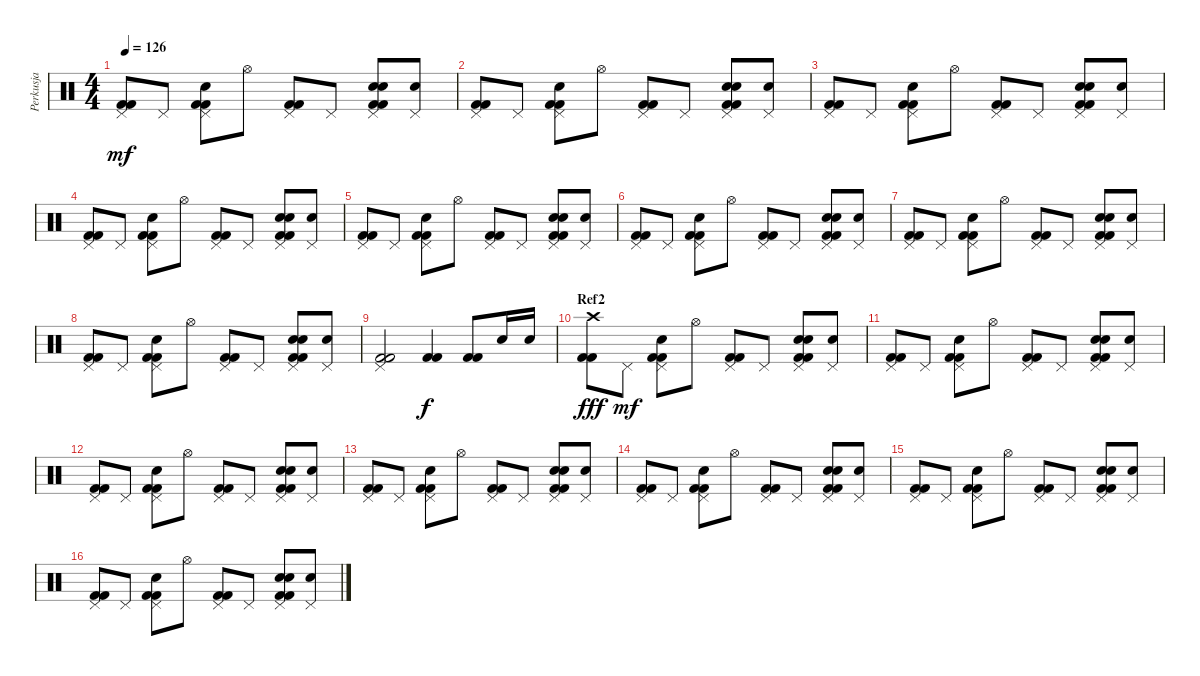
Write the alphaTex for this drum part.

\track ("Perkusja" "Perkusja") {instrument percussion}
\staff {score}
\articulation defaults
\ts (4 4)
\tempo 126
\clef neutral
\ks c
("Pedal Hi-Hat (hit)" "Kick (hit) 2" "Kick (hit) 2").8{dy mf} "Pedal Hi-Hat (hit)".8 ("Pedal Hi-Hat (hit)" "Snare (hit) 2" "Kick (hit) 2" "Kick (hit) 2").8 "Hi-Hat (open)".8 ("Pedal Hi-Hat (hit)" "Kick (hit) 2" "Kick (hit) 2").8 "Pedal Hi-Hat (hit)".8 ("Pedal Hi-Hat (hit)" "Hand Clap (hit)" "Snare (hit) 2" "Kick (hit) 2" "Kick (hit) 2").8 ("Pedal Hi-Hat (hit)" "Hand Clap (hit)").8 |
("Pedal Hi-Hat (hit)" "Kick (hit) 2" "Kick (hit) 2").8 "Pedal Hi-Hat (hit)".8 ("Pedal Hi-Hat (hit)" "Snare (hit) 2" "Kick (hit) 2" "Kick (hit) 2").8 "Hi-Hat (open)".8 ("Pedal Hi-Hat (hit)" "Kick (hit) 2" "Kick (hit) 2").8 "Pedal Hi-Hat (hit)".8 ("Pedal Hi-Hat (hit)" "Hand Clap (hit)" "Snare (hit) 2" "Kick (hit) 2" "Kick (hit) 2").8 ("Pedal Hi-Hat (hit)" "Hand Clap (hit)").8 |
("Pedal Hi-Hat (hit)" "Kick (hit) 2" "Kick (hit) 2").8 "Pedal Hi-Hat (hit)".8 ("Pedal Hi-Hat (hit)" "Snare (hit) 2" "Kick (hit) 2" "Kick (hit) 2").8 "Hi-Hat (open)".8 ("Pedal Hi-Hat (hit)" "Kick (hit) 2" "Kick (hit) 2").8 "Pedal Hi-Hat (hit)".8 ("Pedal Hi-Hat (hit)" "Hand Clap (hit)" "Snare (hit) 2" "Kick (hit) 2" "Kick (hit) 2").8 ("Pedal Hi-Hat (hit)" "Hand Clap (hit)").8 |
("Pedal Hi-Hat (hit)" "Kick (hit) 2" "Kick (hit) 2").8 "Pedal Hi-Hat (hit)".8 ("Pedal Hi-Hat (hit)" "Snare (hit) 2" "Kick (hit) 2" "Kick (hit) 2").8 "Hi-Hat (open)".8 ("Pedal Hi-Hat (hit)" "Kick (hit) 2" "Kick (hit) 2").8 "Pedal Hi-Hat (hit)".8 ("Pedal Hi-Hat (hit)" "Hand Clap (hit)" "Snare (hit) 2" "Kick (hit) 2" "Kick (hit) 2").8 ("Pedal Hi-Hat (hit)" "Hand Clap (hit)").8 |
("Pedal Hi-Hat (hit)" "Kick (hit) 2" "Kick (hit) 2").8 "Pedal Hi-Hat (hit)".8 ("Pedal Hi-Hat (hit)" "Snare (hit) 2" "Kick (hit) 2" "Kick (hit) 2").8 "Hi-Hat (open)".8 ("Pedal Hi-Hat (hit)" "Kick (hit) 2" "Kick (hit) 2").8 "Pedal Hi-Hat (hit)".8 ("Pedal Hi-Hat (hit)" "Hand Clap (hit)" "Snare (hit) 2" "Kick (hit) 2" "Kick (hit) 2").8 ("Pedal Hi-Hat (hit)" "Hand Clap (hit)").8 |
("Pedal Hi-Hat (hit)" "Kick (hit) 2" "Kick (hit) 2").8 "Pedal Hi-Hat (hit)".8 ("Pedal Hi-Hat (hit)" "Snare (hit) 2" "Kick (hit) 2" "Kick (hit) 2").8 "Hi-Hat (open)".8 ("Pedal Hi-Hat (hit)" "Kick (hit) 2" "Kick (hit) 2").8 "Pedal Hi-Hat (hit)".8 ("Pedal Hi-Hat (hit)" "Hand Clap (hit)" "Snare (hit) 2" "Kick (hit) 2" "Kick (hit) 2").8 ("Pedal Hi-Hat (hit)" "Hand Clap (hit)").8 |
("Pedal Hi-Hat (hit)" "Kick (hit) 2" "Kick (hit) 2").8 "Pedal Hi-Hat (hit)".8 ("Pedal Hi-Hat (hit)" "Snare (hit) 2" "Kick (hit) 2" "Kick (hit) 2").8 "Hi-Hat (open)".8 ("Pedal Hi-Hat (hit)" "Kick (hit) 2" "Kick (hit) 2").8 "Pedal Hi-Hat (hit)".8 ("Pedal Hi-Hat (hit)" "Hand Clap (hit)" "Snare (hit) 2" "Kick (hit) 2" "Kick (hit) 2").8 ("Pedal Hi-Hat (hit)" "Hand Clap (hit)").8 |
("Pedal Hi-Hat (hit)" "Kick (hit) 2" "Kick (hit) 2").8 "Pedal Hi-Hat (hit)".8 ("Pedal Hi-Hat (hit)" "Snare (hit) 2" "Kick (hit) 2" "Kick (hit) 2").8 "Hi-Hat (open)".8 ("Pedal Hi-Hat (hit)" "Kick (hit) 2" "Kick (hit) 2").8 "Pedal Hi-Hat (hit)".8 ("Pedal Hi-Hat (hit)" "Hand Clap (hit)" "Snare (hit) 2" "Kick (hit) 2" "Kick (hit) 2").8 ("Pedal Hi-Hat (hit)" "Hand Clap (hit)").8 |
("Pedal Hi-Hat (hit)" "Kick (hit) 2" "Kick (hit) 2").2 ("Kick (hit) 2" "Kick (hit) 2").4{dy f} ("Kick (hit) 2" "Kick (hit) 2").8 "Snare (hit) 2".16 "Snare (hit) 2".16 |
\section ("" "Ref2")
("Crash high (hit)" "Kick (hit) 2" "Kick (hit) 2").8{dy fff} "Pedal Hi-Hat (hit)".8{dy mf} ("Pedal Hi-Hat (hit)" "Snare (hit) 2" "Kick (hit) 2" "Kick (hit) 2").8 "Hi-Hat (open)".8 ("Pedal Hi-Hat (hit)" "Kick (hit) 2" "Kick (hit) 2").8 "Pedal Hi-Hat (hit)".8 ("Pedal Hi-Hat (hit)" "Hand Clap (hit)" "Snare (hit) 2" "Kick (hit) 2" "Kick (hit) 2").8 ("Pedal Hi-Hat (hit)" "Hand Clap (hit)").8 |
("Pedal Hi-Hat (hit)" "Kick (hit) 2" "Kick (hit) 2").8 "Pedal Hi-Hat (hit)".8 ("Pedal Hi-Hat (hit)" "Snare (hit) 2" "Kick (hit) 2" "Kick (hit) 2").8 "Hi-Hat (open)".8 ("Pedal Hi-Hat (hit)" "Kick (hit) 2" "Kick (hit) 2").8 "Pedal Hi-Hat (hit)".8 ("Pedal Hi-Hat (hit)" "Hand Clap (hit)" "Snare (hit) 2" "Kick (hit) 2" "Kick (hit) 2").8 ("Pedal Hi-Hat (hit)" "Hand Clap (hit)").8 |
("Pedal Hi-Hat (hit)" "Kick (hit) 2" "Kick (hit) 2").8 "Pedal Hi-Hat (hit)".8 ("Pedal Hi-Hat (hit)" "Snare (hit) 2" "Kick (hit) 2" "Kick (hit) 2").8 "Hi-Hat (open)".8 ("Pedal Hi-Hat (hit)" "Kick (hit) 2" "Kick (hit) 2").8 "Pedal Hi-Hat (hit)".8 ("Pedal Hi-Hat (hit)" "Hand Clap (hit)" "Snare (hit) 2" "Kick (hit) 2" "Kick (hit) 2").8 ("Pedal Hi-Hat (hit)" "Hand Clap (hit)").8 |
("Pedal Hi-Hat (hit)" "Kick (hit) 2" "Kick (hit) 2").8 "Pedal Hi-Hat (hit)".8 ("Pedal Hi-Hat (hit)" "Snare (hit) 2" "Kick (hit) 2" "Kick (hit) 2").8 "Hi-Hat (open)".8 ("Pedal Hi-Hat (hit)" "Kick (hit) 2" "Kick (hit) 2").8 "Pedal Hi-Hat (hit)".8 ("Pedal Hi-Hat (hit)" "Hand Clap (hit)" "Snare (hit) 2" "Kick (hit) 2" "Kick (hit) 2").8 ("Pedal Hi-Hat (hit)" "Hand Clap (hit)").8 |
("Pedal Hi-Hat (hit)" "Kick (hit) 2" "Kick (hit) 2").8 "Pedal Hi-Hat (hit)".8 ("Pedal Hi-Hat (hit)" "Snare (hit) 2" "Kick (hit) 2" "Kick (hit) 2").8 "Hi-Hat (open)".8 ("Pedal Hi-Hat (hit)" "Kick (hit) 2" "Kick (hit) 2").8 "Pedal Hi-Hat (hit)".8 ("Pedal Hi-Hat (hit)" "Hand Clap (hit)" "Snare (hit) 2" "Kick (hit) 2" "Kick (hit) 2").8 ("Pedal Hi-Hat (hit)" "Hand Clap (hit)").8 |
("Pedal Hi-Hat (hit)" "Kick (hit) 2" "Kick (hit) 2").8 "Pedal Hi-Hat (hit)".8 ("Pedal Hi-Hat (hit)" "Snare (hit) 2" "Kick (hit) 2" "Kick (hit) 2").8 "Hi-Hat (open)".8 ("Pedal Hi-Hat (hit)" "Kick (hit) 2" "Kick (hit) 2").8 "Pedal Hi-Hat (hit)".8 ("Pedal Hi-Hat (hit)" "Hand Clap (hit)" "Snare (hit) 2" "Kick (hit) 2" "Kick (hit) 2").8 ("Pedal Hi-Hat (hit)" "Hand Clap (hit)").8 |
("Pedal Hi-Hat (hit)" "Kick (hit) 2" "Kick (hit) 2").8 "Pedal Hi-Hat (hit)".8 ("Pedal Hi-Hat (hit)" "Snare (hit) 2" "Kick (hit) 2" "Kick (hit) 2").8 "Hi-Hat (open)".8 ("Pedal Hi-Hat (hit)" "Kick (hit) 2" "Kick (hit) 2").8 "Pedal Hi-Hat (hit)".8 ("Pedal Hi-Hat (hit)" "Hand Clap (hit)" "Snare (hit) 2" "Kick (hit) 2" "Kick (hit) 2").8 ("Pedal Hi-Hat (hit)" "Hand Clap (hit)").8
